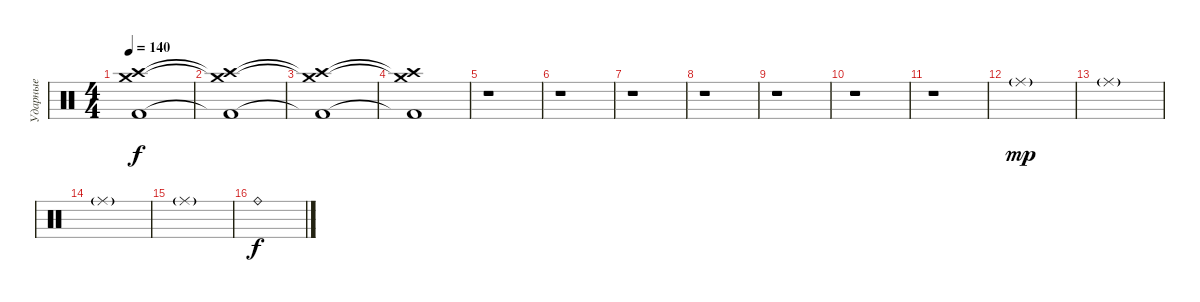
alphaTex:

\track ("Ударные" "Ударные") {instrument percussion}
\staff {score}
\articulation defaults
\ts (4 4)
\tempo 140
\clef neutral
\ks c
("Crash medium (hit)" "Crash high (hit)" "Kick (hit) 2").1{dy f} |
("Crash medium (hit)"{t} "Crash high (hit)"{t} "Kick (hit) 2"{t}).1 |
("Crash medium (hit)"{t} "Crash high (hit)"{t} "Kick (hit) 2"{t}).1 |
("Crash medium (hit)"{t} "Crash high (hit)"{t} "Kick (hit) 2"{t}).1 |
r.1 |
r.1 |
r.1 |
r.1 |
r.1 |
r.1 |
r.1 |
"Ride (middle)"{g}.1{dy mp} |
"Ride (middle)"{g}.1 |
"Ride (middle)"{g}.1 |
"Ride (middle)"{g}.1 |
"Ride (bell)".1{dy f}
